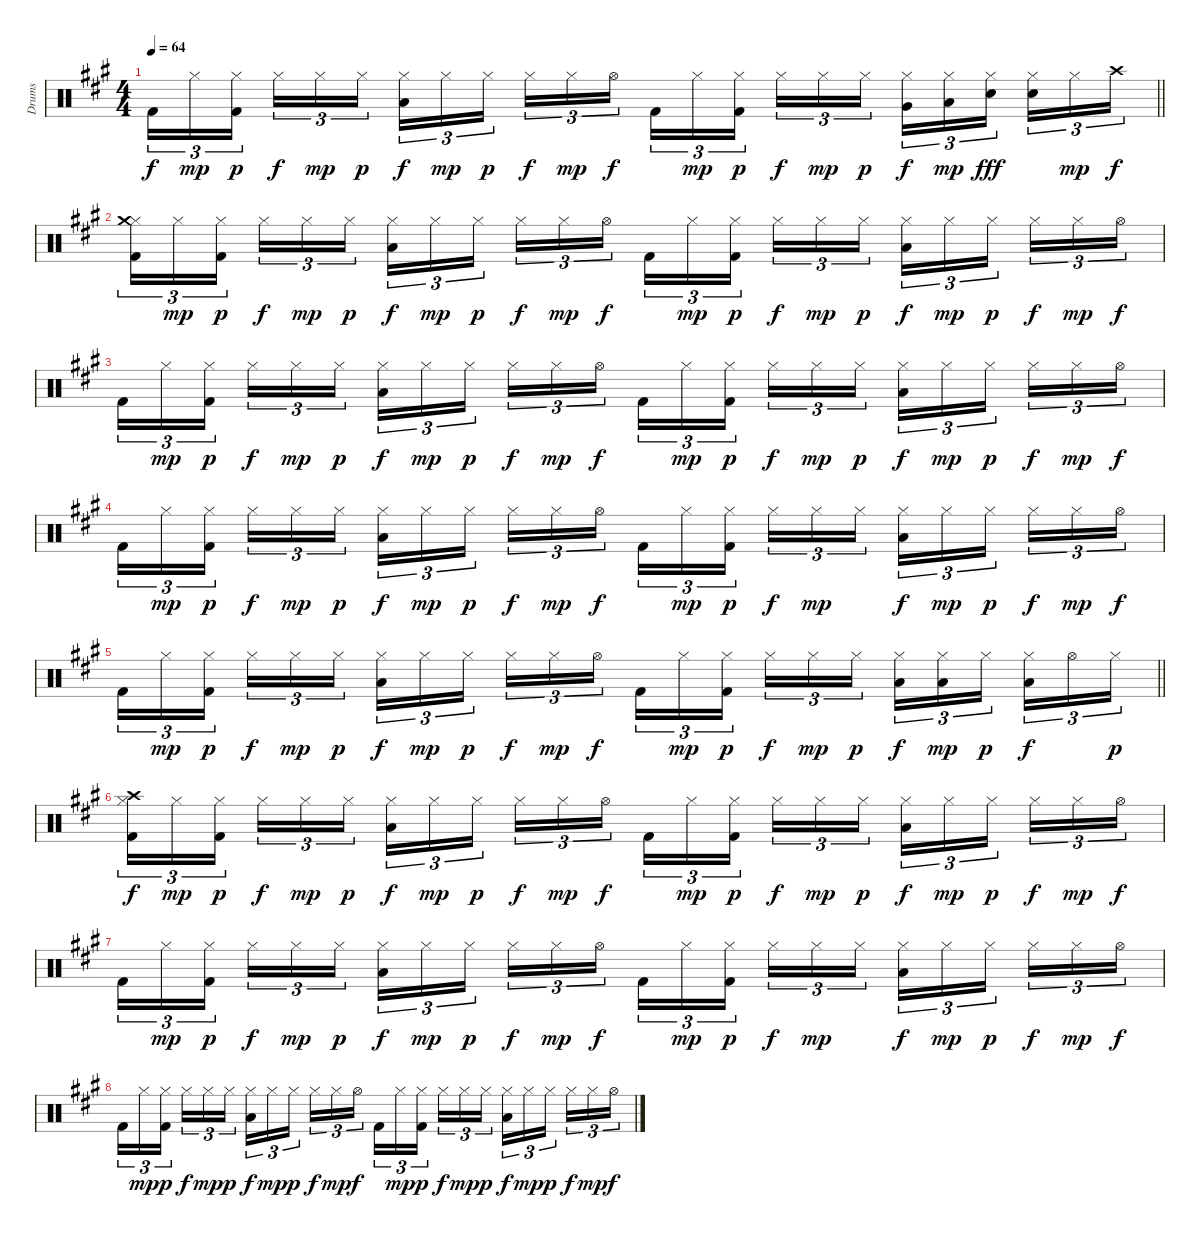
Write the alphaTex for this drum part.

\track ("Drums          " "Drums     ") {instrument percussion}
\staff {score}
\articulation defaults
\ts (4 4)
\tempo 64
\clef neutral
\barLineRight lightlight
\ks f#minor "Kick (hit) 2".16{tu (3 2) dy f} "Hi-Hat (closed)".16{tu (3 2) dy mp}
("Hi-Hat (closed)" "Kick (hit) 2").16{tu (3 2) dy p beam splitsecondary} "Hi-Hat (closed)".16{tu (3 2) dy f} "Hi-Hat (closed)".16{tu (3 2) dy mp} "Hi-Hat (closed)".16{tu (3 2) dy p} ("Hi-Hat (closed)" "Low Floor Tom (hit)").16{tu (3 2) dy f} "Hi-Hat (closed)".16{tu (3 2) dy mp} "Hi-Hat (closed)".16{tu (3 2) dy p beam splitsecondary} "Hi-Hat (closed)".16{tu (3 2) dy f} "Hi-Hat (closed)".16{tu (3 2) dy mp} "Hi-Hat (open)".16{tu (3 2) dy f} "Kick (hit) 2".16{tu (3 2)} "Hi-Hat (closed)".16{tu (3 2) dy mp} ("Hi-Hat (closed)" "Kick (hit) 2").16{tu (3 2) dy p beam splitsecondary} "Hi-Hat (closed)".16{tu (3 2) dy f} "Hi-Hat (closed)".16{tu (3 2) dy mp} "Hi-Hat (closed)".16{tu (3 2) dy p} ("Hi-Hat (closed)" "Very Low Tom (hit)").16{tu (3 2) dy f} ("Hi-Hat (closed)" "Low Floor Tom (hit)").16{tu (3 2) dy mp} ("Hi-Hat (closed)" "Snare (hit) 2").16{tu (3 2) dy fff beam splitsecondary} ("Hi-Hat (closed)" "Snare (hit) 2").16{tu (3 2)} "Hi-Hat (closed)".16{tu (3 2) dy mp} "Crash high (hit)".16{tu (3 2) dy f} |
("Hi-Hat (closed)" "Kick (hit) 2" "Crash medium (hit)").16{tu (3 2)} "Hi-Hat (closed)".16{tu (3 2) dy mp} ("Hi-Hat (closed)" "Kick (hit) 2").16{tu (3 2) dy p beam splitsecondary} "Hi-Hat (closed)".16{tu (3 2) dy f} "Hi-Hat (closed)".16{tu (3 2) dy mp} "Hi-Hat (closed)".16{tu (3 2) dy p} ("Hi-Hat (closed)" "Low Floor Tom (hit)").16{tu (3 2) dy f} "Hi-Hat (closed)".16{tu (3 2) dy mp} "Hi-Hat (closed)".16{tu (3 2) dy p beam splitsecondary} "Hi-Hat (closed)".16{tu (3 2) dy f} "Hi-Hat (closed)".16{tu (3 2) dy mp} "Hi-Hat (open)".16{tu (3 2) dy f} "Kick (hit) 2".16{tu (3 2)} "Hi-Hat (closed)".16{tu (3 2) dy mp} ("Hi-Hat (closed)" "Kick (hit) 2").16{tu (3 2) dy p beam splitsecondary} "Hi-Hat (closed)".16{tu (3 2) dy f} "Hi-Hat (closed)".16{tu (3 2) dy mp} "Hi-Hat (closed)".16{tu (3 2) dy p} ("Hi-Hat (closed)" "Low Floor Tom (hit)").16{tu (3 2) dy f} "Hi-Hat (closed)".16{tu (3 2) dy mp} "Hi-Hat (closed)".16{tu (3 2) dy p beam splitsecondary} "Hi-Hat (closed)".16{tu (3 2) dy f} "Hi-Hat (closed)".16{tu (3 2) dy mp} "Hi-Hat (open)".16{tu (3 2) dy f} |
"Kick (hit) 2".16{tu (3 2)} "Hi-Hat (closed)".16{tu (3 2) dy mp} ("Hi-Hat (closed)" "Kick (hit) 2").16{tu (3 2) dy p beam splitsecondary} "Hi-Hat (closed)".16{tu (3 2) dy f} "Hi-Hat (closed)".16{tu (3 2) dy mp} "Hi-Hat (closed)".16{tu (3 2) dy p} ("Hi-Hat (closed)" "Low Floor Tom (hit)").16{tu (3 2) dy f} "Hi-Hat (closed)".16{tu (3 2) dy mp} "Hi-Hat (closed)".16{tu (3 2) dy p beam splitsecondary} "Hi-Hat (closed)".16{tu (3 2) dy f} "Hi-Hat (closed)".16{tu (3 2) dy mp} "Hi-Hat (open)".16{tu (3 2) dy f} "Kick (hit) 2".16{tu (3 2)} "Hi-Hat (closed)".16{tu (3 2) dy mp} ("Hi-Hat (closed)" "Kick (hit) 2").16{tu (3 2) dy p beam splitsecondary} "Hi-Hat (closed)".16{tu (3 2) dy f} "Hi-Hat (closed)".16{tu (3 2) dy mp} "Hi-Hat (closed)".16{tu (3 2) dy p} ("Hi-Hat (closed)" "Low Floor Tom (hit)").16{tu (3 2) dy f} "Hi-Hat (closed)".16{tu (3 2) dy mp} "Hi-Hat (closed)".16{tu (3 2) dy p beam splitsecondary} "Hi-Hat (closed)".16{tu (3 2) dy f} "Hi-Hat (closed)".16{tu (3 2) dy mp} "Hi-Hat (open)".16{tu (3 2) dy f} |
"Kick (hit) 2".16{tu (3 2)} "Hi-Hat (closed)".16{tu (3 2) dy mp} ("Hi-Hat (closed)" "Kick (hit) 2").16{tu (3 2) dy p beam splitsecondary} "Hi-Hat (closed)".16{tu (3 2) dy f} "Hi-Hat (closed)".16{tu (3 2) dy mp} "Hi-Hat (closed)".16{tu (3 2) dy p} ("Hi-Hat (closed)" "Low Floor Tom (hit)").16{tu (3 2) dy f} "Hi-Hat (closed)".16{tu (3 2) dy mp} "Hi-Hat (closed)".16{tu (3 2) dy p beam splitsecondary} "Hi-Hat (closed)".16{tu (3 2) dy f} "Hi-Hat (closed)".16{tu (3 2) dy mp} "Hi-Hat (open)".16{tu (3 2) dy f} "Kick (hit) 2".16{tu (3 2)} "Hi-Hat (closed)".16{tu (3 2) dy mp} ("Hi-Hat (closed)" "Kick (hit) 2").16{tu (3 2) dy p beam splitsecondary} "Hi-Hat (closed)".16{tu (3 2) dy f} "Hi-Hat (closed)".16{tu (3 2) dy mp} "Hi-Hat (closed)".16{tu (3 2)} ("Hi-Hat (closed)" "Low Floor Tom (hit)").16{tu (3 2) dy f} "Hi-Hat (closed)".16{tu (3 2) dy mp} "Hi-Hat (closed)".16{tu (3 2) dy p beam splitsecondary} "Hi-Hat (closed)".16{tu (3 2) dy f} "Hi-Hat (closed)".16{tu (3 2) dy mp} "Hi-Hat (open)".16{tu (3 2) dy f} |
\barLineRight lightlight "Kick (hit) 2".16{tu (3 2)} "Hi-Hat (closed)".16{tu (3 2) dy mp}
("Hi-Hat (closed)" "Kick (hit) 2").16{tu (3 2) dy p beam splitsecondary} "Hi-Hat (closed)".16{tu (3 2) dy f} "Hi-Hat (closed)".16{tu (3 2) dy mp} "Hi-Hat (closed)".16{tu (3 2) dy p} ("Hi-Hat (closed)" "Low Floor Tom (hit)").16{tu (3 2) dy f} "Hi-Hat (closed)".16{tu (3 2) dy mp} "Hi-Hat (closed)".16{tu (3 2) dy p beam splitsecondary} "Hi-Hat (closed)".16{tu (3 2) dy f} "Hi-Hat (closed)".16{tu (3 2) dy mp} "Hi-Hat (open)".16{tu (3 2) dy f} "Kick (hit) 2".16{tu (3 2)} "Hi-Hat (closed)".16{tu (3 2) dy mp} ("Hi-Hat (closed)" "Kick (hit) 2").16{tu (3 2) dy p beam splitsecondary} "Hi-Hat (closed)".16{tu (3 2) dy f} "Hi-Hat (closed)".16{tu (3 2) dy mp} "Hi-Hat (closed)".16{tu (3 2) dy p} ("Hi-Hat (closed)" "Low Floor Tom (hit)").16{tu (3 2) dy f} ("Hi-Hat (closed)" "Low Tom (hit)").16{tu (3 2) dy mp} "Hi-Hat (closed)".16{tu (3 2) dy p beam splitsecondary} ("Hi-Hat (closed)" "Low Tom (hit)").16{tu (3 2) dy f} "Hi-Hat (open)".16{tu (3 2)} "Hi-Hat (closed)".16{tu (3 2) dy p} |
("Crash high (hit)" "Hi-Hat (closed)" "Kick (hit) 2").16{tu (3 2) dy f} "Hi-Hat (closed)".16{tu (3 2) dy mp} ("Hi-Hat (closed)" "Kick (hit) 2").16{tu (3 2) dy p beam splitsecondary} "Hi-Hat (closed)".16{tu (3 2) dy f} "Hi-Hat (closed)".16{tu (3 2) dy mp} "Hi-Hat (closed)".16{tu (3 2) dy p} ("Hi-Hat (closed)" "Low Floor Tom (hit)").16{tu (3 2) dy f} "Hi-Hat (closed)".16{tu (3 2) dy mp} "Hi-Hat (closed)".16{tu (3 2) dy p beam splitsecondary} "Hi-Hat (closed)".16{tu (3 2) dy f} "Hi-Hat (closed)".16{tu (3 2) dy mp} "Hi-Hat (open)".16{tu (3 2) dy f} "Kick (hit) 2".16{tu (3 2)} "Hi-Hat (closed)".16{tu (3 2) dy mp} ("Hi-Hat (closed)" "Kick (hit) 2").16{tu (3 2) dy p beam splitsecondary} "Hi-Hat (closed)".16{tu (3 2) dy f} "Hi-Hat (closed)".16{tu (3 2) dy mp} "Hi-Hat (closed)".16{tu (3 2) dy p} ("Hi-Hat (closed)" "Low Floor Tom (hit)").16{tu (3 2) dy f} "Hi-Hat (closed)".16{tu (3 2) dy mp} "Hi-Hat (closed)".16{tu (3 2) dy p beam splitsecondary} "Hi-Hat (closed)".16{tu (3 2) dy f} "Hi-Hat (closed)".16{tu (3 2) dy mp} "Hi-Hat (open)".16{tu (3 2) dy f} |
"Kick (hit) 2".16{tu (3 2)} "Hi-Hat (closed)".16{tu (3 2) dy mp} ("Hi-Hat (closed)" "Kick (hit) 2").16{tu (3 2) dy p beam splitsecondary} "Hi-Hat (closed)".16{tu (3 2) dy f} "Hi-Hat (closed)".16{tu (3 2) dy mp} "Hi-Hat (closed)".16{tu (3 2) dy p} ("Hi-Hat (closed)" "Low Floor Tom (hit)").16{tu (3 2) dy f} "Hi-Hat (closed)".16{tu (3 2) dy mp} "Hi-Hat (closed)".16{tu (3 2) dy p beam splitsecondary} "Hi-Hat (closed)".16{tu (3 2) dy f} "Hi-Hat (closed)".16{tu (3 2) dy mp} "Hi-Hat (open)".16{tu (3 2) dy f} "Kick (hit) 2".16{tu (3 2)} "Hi-Hat (closed)".16{tu (3 2) dy mp} ("Hi-Hat (closed)" "Kick (hit) 2").16{tu (3 2) dy p beam splitsecondary} "Hi-Hat (closed)".16{tu (3 2) dy f} "Hi-Hat (closed)".16{tu (3 2) dy mp} "Hi-Hat (closed)".16{tu (3 2)} ("Hi-Hat (closed)" "Low Floor Tom (hit)").16{tu (3 2) dy f} "Hi-Hat (closed)".16{tu (3 2) dy mp} "Hi-Hat (closed)".16{tu (3 2) dy p beam splitsecondary} "Hi-Hat (closed)".16{tu (3 2) dy f} "Hi-Hat (closed)".16{tu (3 2) dy mp} "Hi-Hat (open)".16{tu (3 2) dy f} |
"Kick (hit) 2".16{tu (3 2)} "Hi-Hat (closed)".16{tu (3 2) dy mp} ("Hi-Hat (closed)" "Kick (hit) 2").16{tu (3 2) dy p beam splitsecondary} "Hi-Hat (closed)".16{tu (3 2) dy f} "Hi-Hat (closed)".16{tu (3 2) dy mp} "Hi-Hat (closed)".16{tu (3 2) dy p} ("Hi-Hat (closed)" "Low Floor Tom (hit)").16{tu (3 2) dy f} "Hi-Hat (closed)".16{tu (3 2) dy mp} "Hi-Hat (closed)".16{tu (3 2) dy p beam splitsecondary} "Hi-Hat (closed)".16{tu (3 2) dy f} "Hi-Hat (closed)".16{tu (3 2) dy mp} "Hi-Hat (open)".16{tu (3 2) dy f} "Kick (hit) 2".16{tu (3 2)} "Hi-Hat (closed)".16{tu (3 2) dy mp} ("Hi-Hat (closed)" "Kick (hit) 2").16{tu (3 2) dy p beam splitsecondary} "Hi-Hat (closed)".16{tu (3 2) dy f} "Hi-Hat (closed)".16{tu (3 2) dy mp} "Hi-Hat (closed)".16{tu (3 2) dy p} ("Hi-Hat (closed)" "Low Floor Tom (hit)").16{tu (3 2) dy f} "Hi-Hat (closed)".16{tu (3 2) dy mp} "Hi-Hat (closed)".16{tu (3 2) dy p beam splitsecondary} "Hi-Hat (closed)".16{tu (3 2) dy f} "Hi-Hat (closed)".16{tu (3 2) dy mp} "Hi-Hat (open)".16{tu (3 2) dy f}
